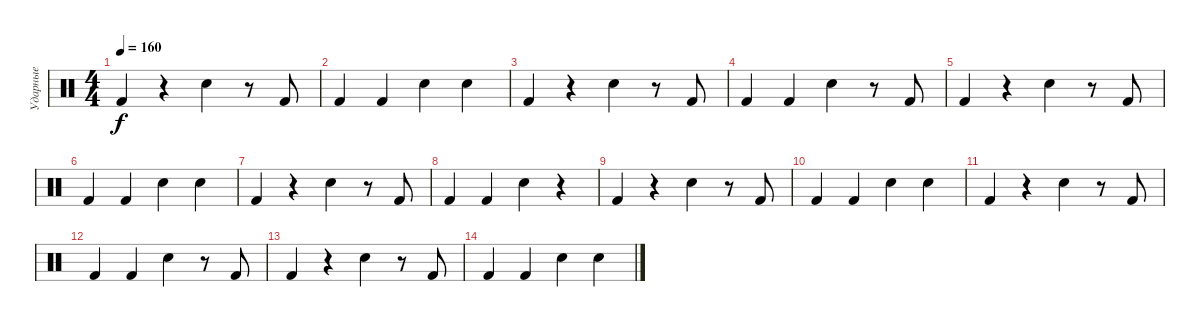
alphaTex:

\track ("Ударные" "Ударные") {instrument percussion}
\staff {score}
\articulation defaults
\ts (4 4)
\tempo 160
\clef neutral
\ks c "Kick (hit) 2".4{dy f}
r.4 "Electric Snare (hit)".4 r.8 "Kick (hit) 2".8 |
"Kick (hit) 2".4 "Kick (hit) 2".4 "Electric Snare (hit)".4 "Electric Snare (hit)".4 |
"Kick (hit) 2".4 r.4 "Electric Snare (hit)".4 r.8 "Kick (hit) 2".8 |
"Kick (hit) 2".4 "Kick (hit) 2".4 "Electric Snare (hit)".4 r.8 "Kick (hit) 2".8 |
"Kick (hit) 2".4 r.4 "Electric Snare (hit)".4 r.8 "Kick (hit) 2".8 |
"Kick (hit) 2".4 "Kick (hit) 2".4 "Electric Snare (hit)".4 "Electric Snare (hit)".4 |
"Kick (hit) 2".4 r.4 "Electric Snare (hit)".4 r.8 "Kick (hit) 2".8 |
"Kick (hit) 2".4 "Kick (hit) 2".4 "Electric Snare (hit)".4 r.4 |
"Kick (hit) 2".4 r.4 "Electric Snare (hit)".4 r.8 "Kick (hit) 2".8 |
"Kick (hit) 2".4 "Kick (hit) 2".4 "Electric Snare (hit)".4 "Electric Snare (hit)".4 |
"Kick (hit) 2".4 r.4 "Electric Snare (hit)".4 r.8 "Kick (hit) 2".8 |
"Kick (hit) 2".4 "Kick (hit) 2".4 "Electric Snare (hit)".4 r.8 "Kick (hit) 2".8 |
"Kick (hit) 2".4 r.4 "Electric Snare (hit)".4 r.8 "Kick (hit) 2".8 |
"Kick (hit) 2".4 "Kick (hit) 2".4 "Electric Snare (hit)".4 "Electric Snare (hit)".4
